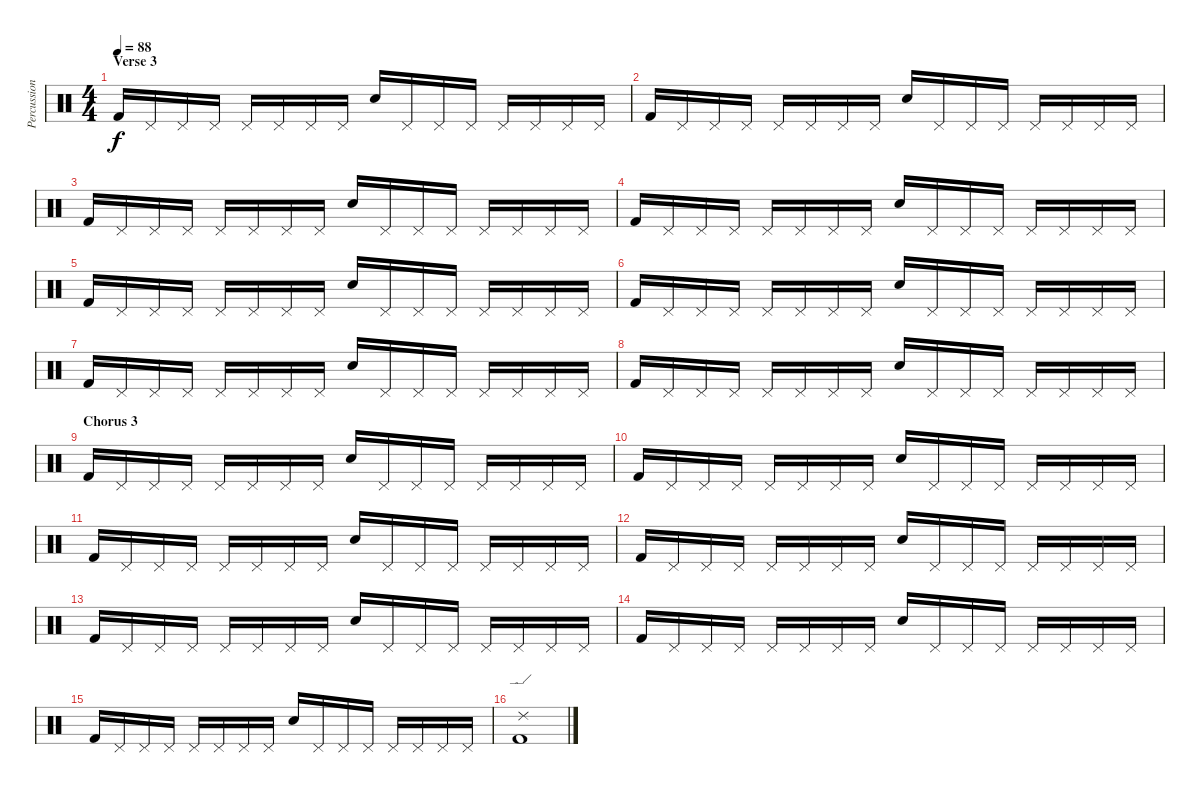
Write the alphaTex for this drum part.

\track ("Percussion" "Percussion") {instrument percussion}
\staff {score}
\articulation defaults
\ts (4 4)
\section ("" "Verse 3")
\tempo 88
\clef neutral
\ks c "Kick (hit) 2".16{dy f} "Pedal Hi-Hat (hit)".16 "Pedal Hi-Hat (hit)".16 "Pedal Hi-Hat (hit)".16 "Pedal Hi-Hat (hit)".16 "Pedal Hi-Hat (hit)".16 "Pedal Hi-Hat (hit)".16 "Pedal Hi-Hat (hit)".16 "Electric Snare (hit)".16 "Pedal Hi-Hat (hit)".16 "Pedal Hi-Hat (hit)".16 "Pedal Hi-Hat (hit)".16 "Pedal Hi-Hat (hit)".16 "Pedal Hi-Hat (hit)".16 "Pedal Hi-Hat (hit)".16 "Pedal Hi-Hat (hit)".16
|
"Kick (hit) 2".16 "Pedal Hi-Hat (hit)".16 "Pedal Hi-Hat (hit)".16 "Pedal Hi-Hat (hit)".16 "Pedal Hi-Hat (hit)".16 "Pedal Hi-Hat (hit)".16 "Pedal Hi-Hat (hit)".16 "Pedal Hi-Hat (hit)".16 "Electric Snare (hit)".16 "Pedal Hi-Hat (hit)".16 "Pedal Hi-Hat (hit)".16 "Pedal Hi-Hat (hit)".16 "Pedal Hi-Hat (hit)".16 "Pedal Hi-Hat (hit)".16 "Pedal Hi-Hat (hit)".16 "Pedal Hi-Hat (hit)".16 |
"Kick (hit) 2".16 "Pedal Hi-Hat (hit)".16 "Pedal Hi-Hat (hit)".16 "Pedal Hi-Hat (hit)".16 "Pedal Hi-Hat (hit)".16 "Pedal Hi-Hat (hit)".16 "Pedal Hi-Hat (hit)".16 "Pedal Hi-Hat (hit)".16 "Electric Snare (hit)".16 "Pedal Hi-Hat (hit)".16 "Pedal Hi-Hat (hit)".16 "Pedal Hi-Hat (hit)".16 "Pedal Hi-Hat (hit)".16 "Pedal Hi-Hat (hit)".16 "Pedal Hi-Hat (hit)".16 "Pedal Hi-Hat (hit)".16 |
"Kick (hit) 2".16 "Pedal Hi-Hat (hit)".16 "Pedal Hi-Hat (hit)".16 "Pedal Hi-Hat (hit)".16 "Pedal Hi-Hat (hit)".16 "Pedal Hi-Hat (hit)".16 "Pedal Hi-Hat (hit)".16 "Pedal Hi-Hat (hit)".16 "Electric Snare (hit)".16 "Pedal Hi-Hat (hit)".16 "Pedal Hi-Hat (hit)".16 "Pedal Hi-Hat (hit)".16 "Pedal Hi-Hat (hit)".16 "Pedal Hi-Hat (hit)".16 "Pedal Hi-Hat (hit)".16 "Pedal Hi-Hat (hit)".16 |
"Kick (hit) 2".16 "Pedal Hi-Hat (hit)".16 "Pedal Hi-Hat (hit)".16 "Pedal Hi-Hat (hit)".16 "Pedal Hi-Hat (hit)".16 "Pedal Hi-Hat (hit)".16 "Pedal Hi-Hat (hit)".16 "Pedal Hi-Hat (hit)".16 "Electric Snare (hit)".16 "Pedal Hi-Hat (hit)".16 "Pedal Hi-Hat (hit)".16 "Pedal Hi-Hat (hit)".16 "Pedal Hi-Hat (hit)".16 "Pedal Hi-Hat (hit)".16 "Pedal Hi-Hat (hit)".16 "Pedal Hi-Hat (hit)".16 |
"Kick (hit) 2".16 "Pedal Hi-Hat (hit)".16 "Pedal Hi-Hat (hit)".16 "Pedal Hi-Hat (hit)".16 "Pedal Hi-Hat (hit)".16 "Pedal Hi-Hat (hit)".16 "Pedal Hi-Hat (hit)".16 "Pedal Hi-Hat (hit)".16 "Electric Snare (hit)".16 "Pedal Hi-Hat (hit)".16 "Pedal Hi-Hat (hit)".16 "Pedal Hi-Hat (hit)".16 "Pedal Hi-Hat (hit)".16 "Pedal Hi-Hat (hit)".16 "Pedal Hi-Hat (hit)".16 "Pedal Hi-Hat (hit)".16 |
"Kick (hit) 2".16 "Pedal Hi-Hat (hit)".16 "Pedal Hi-Hat (hit)".16 "Pedal Hi-Hat (hit)".16 "Pedal Hi-Hat (hit)".16 "Pedal Hi-Hat (hit)".16 "Pedal Hi-Hat (hit)".16 "Pedal Hi-Hat (hit)".16 "Electric Snare (hit)".16 "Pedal Hi-Hat (hit)".16 "Pedal Hi-Hat (hit)".16 "Pedal Hi-Hat (hit)".16 "Pedal Hi-Hat (hit)".16 "Pedal Hi-Hat (hit)".16 "Pedal Hi-Hat (hit)".16 "Pedal Hi-Hat (hit)".16 |
"Kick (hit) 2".16 "Pedal Hi-Hat (hit)".16 "Pedal Hi-Hat (hit)".16 "Pedal Hi-Hat (hit)".16 "Pedal Hi-Hat (hit)".16 "Pedal Hi-Hat (hit)".16 "Pedal Hi-Hat (hit)".16 "Pedal Hi-Hat (hit)".16 "Electric Snare (hit)".16 "Pedal Hi-Hat (hit)".16 "Pedal Hi-Hat (hit)".16 "Pedal Hi-Hat (hit)".16 "Pedal Hi-Hat (hit)".16 "Pedal Hi-Hat (hit)".16 "Pedal Hi-Hat (hit)".16 "Pedal Hi-Hat (hit)".16 |
\section ("" "Chorus 3")
"Kick (hit) 2".16 "Pedal Hi-Hat (hit)".16 "Pedal Hi-Hat (hit)".16 "Pedal Hi-Hat (hit)".16 "Pedal Hi-Hat (hit)".16 "Pedal Hi-Hat (hit)".16 "Pedal Hi-Hat (hit)".16 "Pedal Hi-Hat (hit)".16 "Electric Snare (hit)".16 "Pedal Hi-Hat (hit)".16 "Pedal Hi-Hat (hit)".16 "Pedal Hi-Hat (hit)".16 "Pedal Hi-Hat (hit)".16 "Pedal Hi-Hat (hit)".16 "Pedal Hi-Hat (hit)".16 "Pedal Hi-Hat (hit)".16 |
"Kick (hit) 2".16 "Pedal Hi-Hat (hit)".16 "Pedal Hi-Hat (hit)".16 "Pedal Hi-Hat (hit)".16 "Pedal Hi-Hat (hit)".16 "Pedal Hi-Hat (hit)".16 "Pedal Hi-Hat (hit)".16 "Pedal Hi-Hat (hit)".16 "Electric Snare (hit)".16 "Pedal Hi-Hat (hit)".16 "Pedal Hi-Hat (hit)".16 "Pedal Hi-Hat (hit)".16 "Pedal Hi-Hat (hit)".16 "Pedal Hi-Hat (hit)".16 "Pedal Hi-Hat (hit)".16 "Pedal Hi-Hat (hit)".16 |
"Kick (hit) 2".16 "Pedal Hi-Hat (hit)".16 "Pedal Hi-Hat (hit)".16 "Pedal Hi-Hat (hit)".16 "Pedal Hi-Hat (hit)".16 "Pedal Hi-Hat (hit)".16 "Pedal Hi-Hat (hit)".16 "Pedal Hi-Hat (hit)".16 "Electric Snare (hit)".16 "Pedal Hi-Hat (hit)".16 "Pedal Hi-Hat (hit)".16 "Pedal Hi-Hat (hit)".16 "Pedal Hi-Hat (hit)".16 "Pedal Hi-Hat (hit)".16 "Pedal Hi-Hat (hit)".16 "Pedal Hi-Hat (hit)".16 |
"Kick (hit) 2".16 "Pedal Hi-Hat (hit)".16 "Pedal Hi-Hat (hit)".16 "Pedal Hi-Hat (hit)".16 "Pedal Hi-Hat (hit)".16 "Pedal Hi-Hat (hit)".16 "Pedal Hi-Hat (hit)".16 "Pedal Hi-Hat (hit)".16 "Electric Snare (hit)".16 "Pedal Hi-Hat (hit)".16 "Pedal Hi-Hat (hit)".16 "Pedal Hi-Hat (hit)".16 "Pedal Hi-Hat (hit)".16 "Pedal Hi-Hat (hit)".16 "Pedal Hi-Hat (hit)".16 "Pedal Hi-Hat (hit)".16 |
"Kick (hit) 2".16 "Pedal Hi-Hat (hit)".16 "Pedal Hi-Hat (hit)".16 "Pedal Hi-Hat (hit)".16 "Pedal Hi-Hat (hit)".16 "Pedal Hi-Hat (hit)".16 "Pedal Hi-Hat (hit)".16 "Pedal Hi-Hat (hit)".16 "Electric Snare (hit)".16 "Pedal Hi-Hat (hit)".16 "Pedal Hi-Hat (hit)".16 "Pedal Hi-Hat (hit)".16 "Pedal Hi-Hat (hit)".16 "Pedal Hi-Hat (hit)".16 "Pedal Hi-Hat (hit)".16 "Pedal Hi-Hat (hit)".16 |
"Kick (hit) 2".16 "Pedal Hi-Hat (hit)".16 "Pedal Hi-Hat (hit)".16 "Pedal Hi-Hat (hit)".16 "Pedal Hi-Hat (hit)".16 "Pedal Hi-Hat (hit)".16 "Pedal Hi-Hat (hit)".16 "Pedal Hi-Hat (hit)".16 "Electric Snare (hit)".16 "Pedal Hi-Hat (hit)".16 "Pedal Hi-Hat (hit)".16 "Pedal Hi-Hat (hit)".16 "Pedal Hi-Hat (hit)".16 "Pedal Hi-Hat (hit)".16 "Pedal Hi-Hat (hit)".16 "Pedal Hi-Hat (hit)".16 |
"Kick (hit) 2".16 "Pedal Hi-Hat (hit)".16 "Pedal Hi-Hat (hit)".16 "Pedal Hi-Hat (hit)".16 "Pedal Hi-Hat (hit)".16 "Pedal Hi-Hat (hit)".16 "Pedal Hi-Hat (hit)".16 "Pedal Hi-Hat (hit)".16 "Electric Snare (hit)".16 "Pedal Hi-Hat (hit)".16 "Pedal Hi-Hat (hit)".16 "Pedal Hi-Hat (hit)".16 "Pedal Hi-Hat (hit)".16 "Pedal Hi-Hat (hit)".16 "Pedal Hi-Hat (hit)".16 "Pedal Hi-Hat (hit)".16 |
("Ride (edge) 2" "Kick (hit) 2").1
